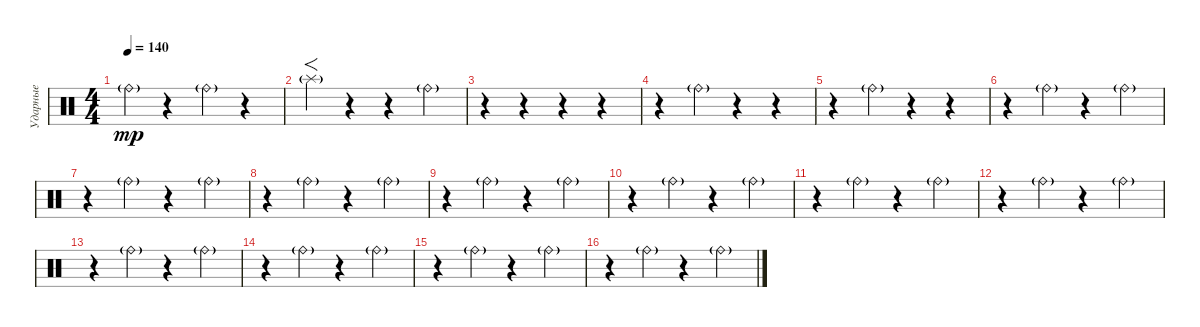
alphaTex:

\track ("Ударные" "Ударные") {instrument percussion}
\staff {score}
\articulation defaults
\ts (4 4)
\tempo 140
\clef neutral
\ks c "Ride (bell)"{g}.4{dy mp}
r.4 "Ride (bell)"{g}.4 r.4 |
"Splash (hit)"{g}.4{f} r.4 r.4 "Ride (bell)"{g}.4 |
r.4 r.4 r.4 r.4 |
r.4 "Ride (bell)"{g}.4 r.4 r.4 |
r.4 "Ride (bell)"{g}.4 r.4 r.4 |
r.4 "Ride (bell)"{g}.4 r.4 "Ride (bell)"{g}.4 |
r.4 "Ride (bell)"{g}.4 r.4 "Ride (bell)"{g}.4 |
r.4 "Ride (bell)"{g}.4 r.4 "Ride (bell)"{g}.4 |
r.4 "Ride (bell)"{g}.4 r.4 "Ride (bell)"{g}.4 |
r.4 "Ride (bell)"{g}.4 r.4 "Ride (bell)"{g}.4 |
r.4 "Ride (bell)"{g}.4 r.4 "Ride (bell)"{g}.4 |
r.4 "Ride (bell)"{g}.4 r.4 "Ride (bell)"{g}.4 |
r.4 "Ride (bell)"{g}.4 r.4 "Ride (bell)"{g}.4 |
r.4 "Ride (bell)"{g}.4 r.4 "Ride (bell)"{g}.4 |
r.4 "Ride (bell)"{g}.4 r.4 "Ride (bell)"{g}.4 |
r.4 "Ride (bell)"{g}.4 r.4 "Ride (bell)"{g}.4
